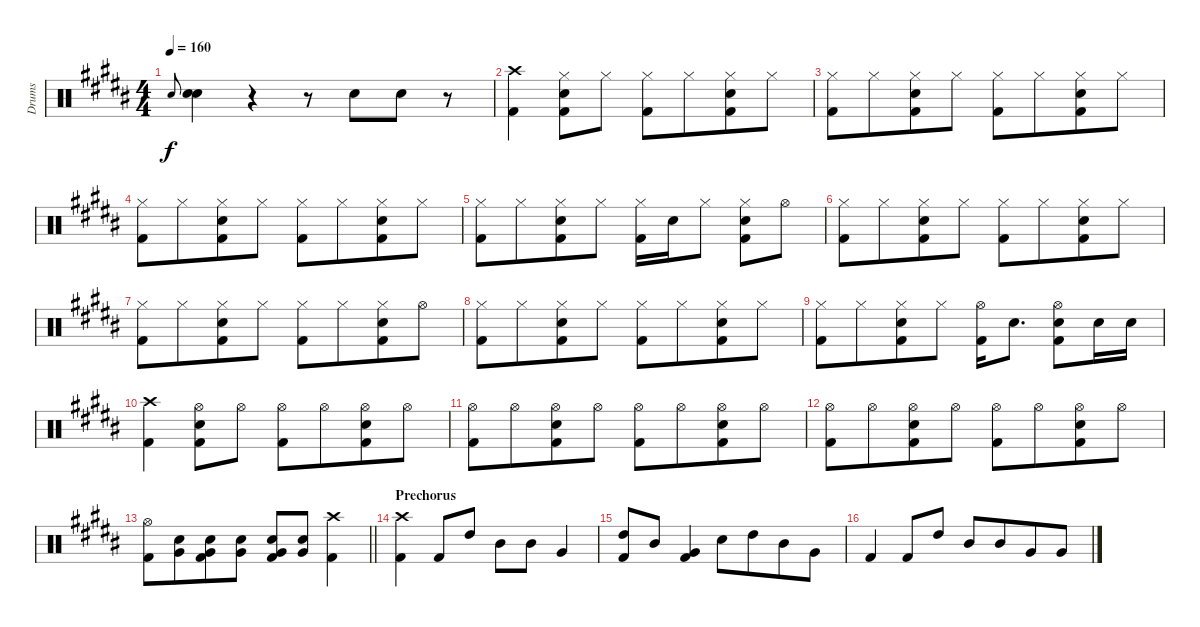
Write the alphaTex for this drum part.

\track ("Drums" "Drums") {instrument percussion}
\staff {score}
\articulation defaults
\ts (4 4)
\tempo 160
\clef neutral
\ks b "Snare (hit) 2".8{gr onbeat dy f}
("Snare (hit) 2" "Snare (hit) 2").4 r.4 r.8 "Snare (hit) 2".8{beam merge} "Snare (hit) 2".8 r.8 |
("Kick (hit) 2" "Crash high (hit)").4 ("Hi-Hat (closed)" "Snare (hit) 2" "Kick (hit) 2").8 "Hi-Hat (closed)".8 ("Hi-Hat (closed)" "Kick (hit) 2").8 "Hi-Hat (closed)".8{beam merge} ("Hi-Hat (closed)" "Snare (hit) 2" "Kick (hit) 2").8 "Hi-Hat (closed)".8 |
("Hi-Hat (closed)" "Kick (hit) 2").8 "Hi-Hat (closed)".8{beam merge} ("Hi-Hat (closed)" "Snare (hit) 2" "Kick (hit) 2").8 "Hi-Hat (closed)".8 ("Hi-Hat (closed)" "Kick (hit) 2").8 "Hi-Hat (closed)".8{beam merge} ("Hi-Hat (closed)" "Snare (hit) 2" "Kick (hit) 2").8 "Hi-Hat (closed)".8 |
("Hi-Hat (closed)" "Kick (hit) 2").8 "Hi-Hat (closed)".8{beam merge} ("Hi-Hat (closed)" "Snare (hit) 2" "Kick (hit) 2").8 "Hi-Hat (closed)".8 ("Hi-Hat (closed)" "Kick (hit) 2").8 "Hi-Hat (closed)".8{beam merge} ("Hi-Hat (closed)" "Snare (hit) 2" "Kick (hit) 2").8 "Hi-Hat (closed)".8 |
("Hi-Hat (closed)" "Kick (hit) 2").8 "Hi-Hat (closed)".8{beam merge} ("Hi-Hat (closed)" "Snare (hit) 2" "Kick (hit) 2").8 "Hi-Hat (closed)".8 ("Hi-Hat (closed)" "Kick (hit) 2").16 "Snare (hit) 2".16 "Hi-Hat (closed)".8 ("Hi-Hat (closed)" "Snare (hit) 2" "Kick (hit) 2").8 "Hi-Hat (open)".8 |
("Hi-Hat (closed)" "Kick (hit) 2").8 "Hi-Hat (closed)".8{beam merge} ("Hi-Hat (closed)" "Snare (hit) 2" "Kick (hit) 2").8 "Hi-Hat (closed)".8 ("Hi-Hat (closed)" "Kick (hit) 2").8 "Hi-Hat (closed)".8{beam merge} ("Hi-Hat (closed)" "Snare (hit) 2" "Kick (hit) 2").8 "Hi-Hat (closed)".8 |
("Hi-Hat (closed)" "Kick (hit) 2").8 "Hi-Hat (closed)".8{beam merge} ("Hi-Hat (closed)" "Snare (hit) 2" "Kick (hit) 2").8 "Hi-Hat (closed)".8 ("Hi-Hat (closed)" "Kick (hit) 2").8 "Hi-Hat (closed)".8{beam merge} ("Hi-Hat (closed)" "Snare (hit) 2" "Kick (hit) 2").8 "Hi-Hat (open)".8 |
("Hi-Hat (closed)" "Kick (hit) 2").8 "Hi-Hat (closed)".8{beam merge} ("Hi-Hat (closed)" "Snare (hit) 2" "Kick (hit) 2").8 "Hi-Hat (closed)".8 ("Hi-Hat (closed)" "Kick (hit) 2").8 "Hi-Hat (closed)".8{beam merge} ("Hi-Hat (closed)" "Snare (hit) 2" "Kick (hit) 2").8 "Hi-Hat (closed)".8 |
("Hi-Hat (closed)" "Kick (hit) 2").8 "Hi-Hat (closed)".8{beam merge} ("Hi-Hat (closed)" "Snare (hit) 2" "Kick (hit) 2").8 "Hi-Hat (closed)".8 ("Hi-Hat (open)" "Kick (hit) 2").16 "Snare (hit) 2".8{d} ("Hi-Hat (open)" "Snare (hit) 2" "Kick (hit) 2").8 "Snare (hit) 2".16 "Snare (hit) 2".16 |
("Kick (hit) 2" "Crash high (hit)").4 ("Hi-Hat (open)" "Snare (hit) 2" "Kick (hit) 2").8 "Hi-Hat (open)".8 ("Hi-Hat (open)" "Kick (hit) 2").8 "Hi-Hat (open)".8{beam merge} ("Hi-Hat (open)" "Snare (hit) 2" "Kick (hit) 2").8 "Hi-Hat (open)".8 |
("Hi-Hat (open)" "Kick (hit) 2").8 "Hi-Hat (open)".8{beam merge} ("Hi-Hat (open)" "Snare (hit) 2" "Kick (hit) 2").8 "Hi-Hat (open)".8 ("Hi-Hat (open)" "Kick (hit) 2").8 "Hi-Hat (open)".8{beam merge} ("Hi-Hat (open)" "Snare (hit) 2" "Kick (hit) 2").8 "Hi-Hat (open)".8 |
("Hi-Hat (open)" "Kick (hit) 2").8 "Hi-Hat (open)".8{beam merge} ("Hi-Hat (open)" "Snare (hit) 2" "Kick (hit) 2").8 "Hi-Hat (open)".8 ("Hi-Hat (open)" "Kick (hit) 2").8 "Hi-Hat (open)".8{beam merge} ("Hi-Hat (open)" "Snare (hit) 2" "Kick (hit) 2").8 "Hi-Hat (open)".8 |
\barLineRight lightlight
("Hi-Hat (open)" "Kick (hit) 2").8 ("Very Low Tom (hit)" "Snare (hit) 2").8{beam merge} ("Very Low Tom (hit)" "Snare (hit) 2" "Kick (hit) 2").8 ("Very Low Tom (hit)" "Snare (hit) 2").8 ("Very Low Tom (hit)" "Snare (hit) 2" "Kick (hit) 2").8 ("Very Low Tom (hit)" "Snare (hit) 2").8 ("Kick (hit) 2" "Crash high (hit)").4 |
\section ("" "Prechorus")
("Kick (hit) 2" "Crash high (hit)").4 "Kick (hit) 2".8 "High Tom (hit)".8 "Mid Tom (hit)".8 "Mid Tom (hit)".8 "Very Low Tom (hit)".4 |
("High Tom (hit)" "Kick (hit) 2").8 "Mid Tom (hit)".8 ("Very Low Tom (hit)" "Kick (hit) 2").4 "Snare (hit) 2".8 "High Tom (hit)".8{beam merge} "Mid Tom (hit)".8 "Very Low Tom (hit)".8 |
"Kick (hit) 2".4 "Kick (hit) 2".8 "High Tom (hit)".8 "Mid Tom (hit)".8 "Mid Tom (hit)".8{beam merge} "Very Low Tom (hit)".8 "Very Low Tom (hit)".8
